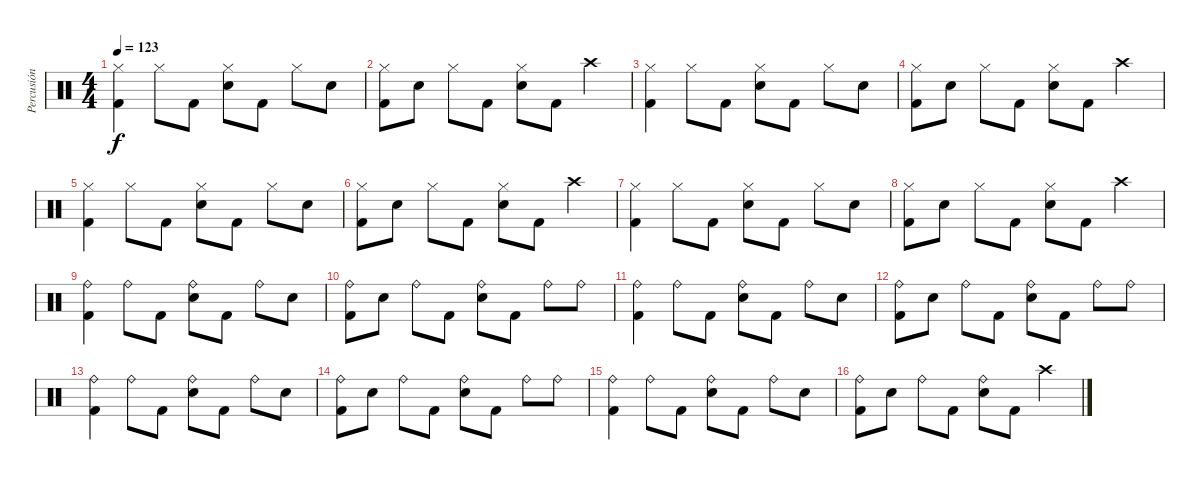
\track ("Percusión" "Percusión") {instrument percussion}
\staff {score}
\articulation defaults
\ts (4 4)
\tempo 123
\clef neutral
\ks c
("Hi-Hat (closed)" "Kick (hit) 2").4{dy f} "Hi-Hat (closed)".8 "Kick (hit) 2".8 ("Hi-Hat (closed)" "Snare (hit) 2").8 "Kick (hit) 2".8 "Hi-Hat (closed)".8 "Snare (hit) 2".8 |
("Hi-Hat (closed)" "Kick (hit) 2").8 "Snare (hit) 2".8 "Hi-Hat (closed)".8 "Kick (hit) 2".8 ("Hi-Hat (closed)" "Snare (hit) 2").8 "Kick (hit) 2".8 "Crash high (hit)".4 |
("Hi-Hat (closed)" "Kick (hit) 2").4 "Hi-Hat (closed)".8 "Kick (hit) 2".8 ("Hi-Hat (closed)" "Snare (hit) 2").8 "Kick (hit) 2".8 "Hi-Hat (closed)".8 "Snare (hit) 2".8 |
("Hi-Hat (closed)" "Kick (hit) 2").8 "Snare (hit) 2".8 "Hi-Hat (closed)".8 "Kick (hit) 2".8 ("Hi-Hat (closed)" "Snare (hit) 2").8 "Kick (hit) 2".8 "Crash high (hit)".4 |
("Hi-Hat (closed)" "Kick (hit) 2").4 "Hi-Hat (closed)".8 "Kick (hit) 2".8 ("Hi-Hat (closed)" "Snare (hit) 2").8 "Kick (hit) 2".8 "Hi-Hat (closed)".8 "Snare (hit) 2".8 |
("Hi-Hat (closed)" "Kick (hit) 2").8 "Snare (hit) 2".8 "Hi-Hat (closed)".8 "Kick (hit) 2".8 ("Hi-Hat (closed)" "Snare (hit) 2").8 "Kick (hit) 2".8 "Crash high (hit)".4 |
("Hi-Hat (closed)" "Kick (hit) 2").4 "Hi-Hat (closed)".8 "Kick (hit) 2".8 ("Hi-Hat (closed)" "Snare (hit) 2").8 "Kick (hit) 2".8 "Hi-Hat (closed)".8 "Snare (hit) 2".8 |
("Hi-Hat (closed)" "Kick (hit) 2").8 "Snare (hit) 2".8 "Hi-Hat (closed)".8 "Kick (hit) 2".8 ("Hi-Hat (closed)" "Snare (hit) 2").8 "Kick (hit) 2".8 "Crash high (hit)".4 |
("Ride (bell)" "Kick (hit) 2").4 "Ride (bell)".8 "Kick (hit) 2".8 ("Ride (bell)" "Snare (hit) 2").8 "Kick (hit) 2".8 "Ride (bell)".8 "Snare (hit) 2".8 |
("Ride (bell)" "Kick (hit) 2").8 "Snare (hit) 2".8 "Ride (bell)".8 "Kick (hit) 2".8 ("Ride (bell)" "Snare (hit) 2").8 "Kick (hit) 2".8 "Ride (bell)".8 "Ride (bell)".8 |
("Ride (bell)" "Kick (hit) 2").4 "Ride (bell)".8 "Kick (hit) 2".8 ("Ride (bell)" "Snare (hit) 2").8 "Kick (hit) 2".8 "Ride (bell)".8 "Snare (hit) 2".8 |
("Ride (bell)" "Kick (hit) 2").8 "Snare (hit) 2".8 "Ride (bell)".8 "Kick (hit) 2".8 ("Ride (bell)" "Snare (hit) 2").8 "Kick (hit) 2".8 "Ride (bell)".8 "Ride (bell)".8 |
("Ride (bell)" "Kick (hit) 2").4 "Ride (bell)".8 "Kick (hit) 2".8 ("Ride (bell)" "Snare (hit) 2").8 "Kick (hit) 2".8 "Ride (bell)".8 "Snare (hit) 2".8 |
("Ride (bell)" "Kick (hit) 2").8 "Snare (hit) 2".8 "Ride (bell)".8 "Kick (hit) 2".8 ("Ride (bell)" "Snare (hit) 2").8 "Kick (hit) 2".8 "Ride (bell)".8 "Ride (bell)".8 |
("Ride (bell)" "Kick (hit) 2").4 "Ride (bell)".8 "Kick (hit) 2".8 ("Ride (bell)" "Snare (hit) 2").8 "Kick (hit) 2".8 "Ride (bell)".8 "Snare (hit) 2".8 |
("Ride (bell)" "Kick (hit) 2").8 "Snare (hit) 2".8 "Ride (bell)".8 "Kick (hit) 2".8 ("Ride (bell)" "Snare (hit) 2").8 "Kick (hit) 2".8 "Crash high (hit)".4
